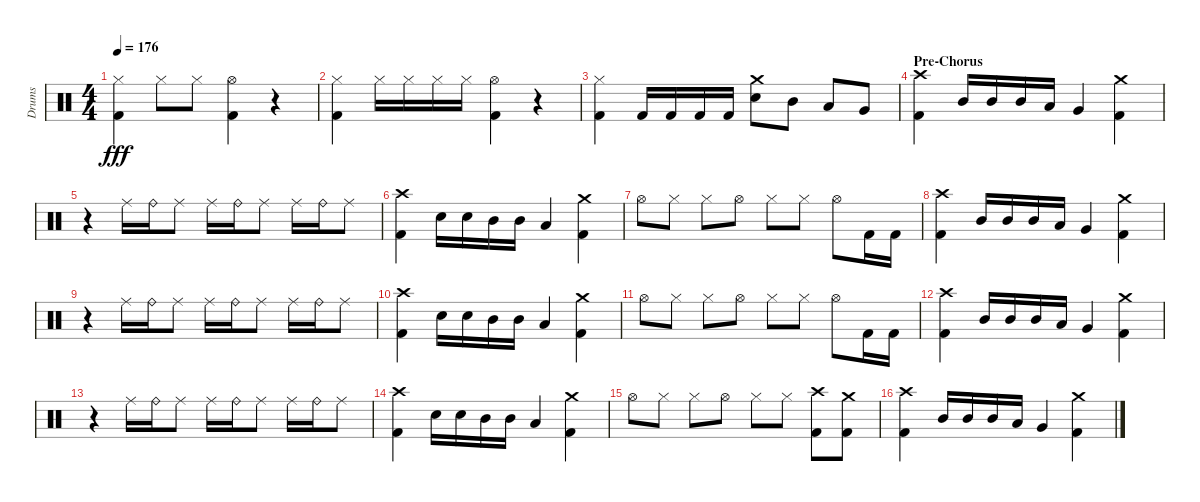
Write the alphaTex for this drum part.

\track ("Drums" "Drums") {instrument percussion}
\staff {score}
\articulation defaults
\ts (4 4)
\tempo 176
\clef neutral
\ks aminor
("Kick (hit) 2" "Hi-Hat (closed)").4{dy fff} "Hi-Hat (closed)".8 "Hi-Hat (closed)".8 ("Kick (hit) 2" "Hi-Hat (open)").4 r.4 |
("Kick (hit) 2" "Hi-Hat (closed)").4 "Hi-Hat (closed)".16 "Hi-Hat (closed)".16 "Hi-Hat (closed)".16 "Hi-Hat (closed)".16 ("Kick (hit) 2" "Hi-Hat (open)").4 r.4 |
("Kick (hit) 2" "Hi-Hat (closed)").4 "Kick (hit) 2".16 "Kick (hit) 2".16 "Kick (hit) 2".16 "Kick (hit) 2".16 ("Snare (hit) 2" "Crash medium (hit)").8 "Mid Tom (hit)".8 "Low Tom (hit)".8 "Very Low Tom (hit)".8 |
\section ("" "Pre-Chorus")
("Kick (hit) 2" "Crash high (hit)").4 "Mid Tom (hit)".16 "Mid Tom (hit)".16 "Mid Tom (hit)".16 "Low Tom (hit)".16 "Very Low Tom (hit)".4 ("Kick (hit) 2" "Crash medium (hit)").4 |
r.4 "Ride (middle)".16 "Ride (bell)".16 "Ride (middle)".8 "Ride (middle)".16 "Ride (bell)".16 "Ride (middle)".8 "Ride (middle)".16 "Ride (bell)".16 "Ride (middle)".8 |
("Kick (hit) 2" "Crash high (hit)").4 "Snare (hit) 2".16 "Snare (hit) 2".16 "Mid Tom (hit)".16 "Mid Tom (hit)".16 "Low Tom (hit)".4 ("Kick (hit) 2" "Crash medium (hit)").4 |
"Hi-Hat (open)".8 "Hi-Hat (closed)".8 "Hi-Hat (closed)".8 "Hi-Hat (open)".8 "Hi-Hat (closed)".8 "Hi-Hat (closed)".8 "Hi-Hat (open)".8 "Kick (hit) 2".16 "Kick (hit) 2".16 |
("Kick (hit) 2" "Crash high (hit)").4 "Mid Tom (hit)".16 "Mid Tom (hit)".16 "Mid Tom (hit)".16 "Low Tom (hit)".16 "Very Low Tom (hit)".4 ("Kick (hit) 2" "Crash medium (hit)").4 |
r.4 "Ride (middle)".16 "Ride (bell)".16 "Ride (middle)".8 "Ride (middle)".16 "Ride (bell)".16 "Ride (middle)".8 "Ride (middle)".16 "Ride (bell)".16 "Ride (middle)".8 |
("Kick (hit) 2" "Crash high (hit)").4 "Snare (hit) 2".16 "Snare (hit) 2".16 "Mid Tom (hit)".16 "Mid Tom (hit)".16 "Low Tom (hit)".4 ("Kick (hit) 2" "Crash medium (hit)").4 |
"Hi-Hat (open)".8 "Hi-Hat (closed)".8 "Hi-Hat (closed)".8 "Hi-Hat (open)".8 "Hi-Hat (closed)".8 "Hi-Hat (closed)".8 "Hi-Hat (open)".8 "Kick (hit) 2".16 "Kick (hit) 2".16 |
("Kick (hit) 2" "Crash high (hit)").4 "Mid Tom (hit)".16 "Mid Tom (hit)".16 "Mid Tom (hit)".16 "Low Tom (hit)".16 "Very Low Tom (hit)".4 ("Kick (hit) 2" "Crash medium (hit)").4 |
r.4 "Ride (middle)".16 "Ride (bell)".16 "Ride (middle)".8 "Ride (middle)".16 "Ride (bell)".16 "Ride (middle)".8 "Ride (middle)".16 "Ride (bell)".16 "Ride (middle)".8 |
("Kick (hit) 2" "Crash high (hit)").4 "Snare (hit) 2".16 "Snare (hit) 2".16 "Mid Tom (hit)".16 "Mid Tom (hit)".16 "Low Tom (hit)".4 ("Kick (hit) 2" "Crash medium (hit)").4 |
"Hi-Hat (open)".8 "Hi-Hat (closed)".8 "Hi-Hat (closed)".8 "Hi-Hat (open)".8 "Hi-Hat (closed)".8 "Hi-Hat (closed)".8 ("Kick (hit) 2" "Crash high (hit)").8 ("Kick (hit) 2" "Crash medium (hit)").8 |
("Kick (hit) 2" "Crash high (hit)").4 "Mid Tom (hit)".16 "Mid Tom (hit)".16 "Mid Tom (hit)".16 "Low Tom (hit)".16 "Very Low Tom (hit)".4 ("Kick (hit) 2" "Crash medium (hit)").4
